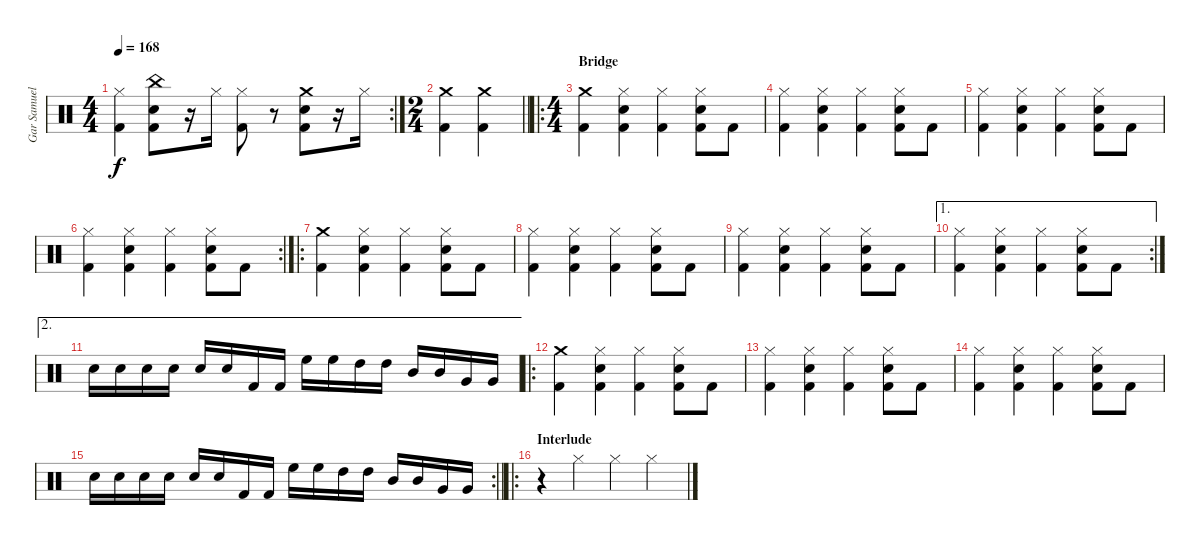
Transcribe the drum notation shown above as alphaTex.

\track ("Gar Samuelson" "Gar Samuel") {instrument percussion}
\staff {score}
\articulation defaults
\rc 2
\ts (4 4)
\tempo 168
\clef neutral
\ks c
("Hi-Hat (closed)" "Kick (hit) 2").4{dy f} ("China (hit)" "Snare (hit) 2" "Kick (hit) 2").8 r.16 "Hi-Hat (closed)".16 ("Hi-Hat (closed)" "Kick (hit) 2").8 r.8 ("Crash medium (hit)" "Snare (hit) 2" "Kick (hit) 2").8 r.16 "Hi-Hat (closed)".16 |
\ts (2 4)
\barLineRight lightlight
("Crash medium (hit)" "Kick (hit) 2").4 ("Crash medium (hit)" "Kick (hit) 2").4 |
\ro
\ts (4 4)
\section ("" "Bridge")
("Crash medium (hit)" "Kick (hit) 2").4 ("Hi-Hat (closed)" "Snare (hit) 2" "Kick (hit) 2").4 ("Hi-Hat (closed)" "Kick (hit) 2").4 ("Hi-Hat (closed)" "Snare (hit) 2" "Kick (hit) 2").8 "Kick (hit) 2".8 |
("Hi-Hat (closed)" "Kick (hit) 2").4 ("Hi-Hat (closed)" "Snare (hit) 2" "Kick (hit) 2").4 ("Hi-Hat (closed)" "Kick (hit) 2").4 ("Hi-Hat (closed)" "Snare (hit) 2" "Kick (hit) 2").8 "Kick (hit) 2".8 |
("Hi-Hat (closed)" "Kick (hit) 2").4 ("Hi-Hat (closed)" "Snare (hit) 2" "Kick (hit) 2").4 ("Hi-Hat (closed)" "Kick (hit) 2").4 ("Hi-Hat (closed)" "Snare (hit) 2" "Kick (hit) 2").8 "Kick (hit) 2".8 |
\rc 2
("Hi-Hat (closed)" "Kick (hit) 2").4 ("Hi-Hat (closed)" "Snare (hit) 2" "Kick (hit) 2").4 ("Hi-Hat (closed)" "Kick (hit) 2").4 ("Hi-Hat (closed)" "Snare (hit) 2" "Kick (hit) 2").8 "Kick (hit) 2".8 |
\ro
("Crash medium (hit)" "Kick (hit) 2").4 ("Hi-Hat (closed)" "Snare (hit) 2" "Kick (hit) 2").4 ("Hi-Hat (closed)" "Kick (hit) 2").4 ("Hi-Hat (closed)" "Snare (hit) 2" "Kick (hit) 2").8 "Kick (hit) 2".8 |
("Hi-Hat (closed)" "Kick (hit) 2").4 ("Hi-Hat (closed)" "Snare (hit) 2" "Kick (hit) 2").4 ("Hi-Hat (closed)" "Kick (hit) 2").4 ("Hi-Hat (closed)" "Snare (hit) 2" "Kick (hit) 2").8 "Kick (hit) 2".8 |
("Hi-Hat (closed)" "Kick (hit) 2").4 ("Hi-Hat (closed)" "Snare (hit) 2" "Kick (hit) 2").4 ("Hi-Hat (closed)" "Kick (hit) 2").4 ("Hi-Hat (closed)" "Snare (hit) 2" "Kick (hit) 2").8 "Kick (hit) 2".8 |
\ae 1
\rc 2
("Hi-Hat (closed)" "Kick (hit) 2").4 ("Hi-Hat (closed)" "Snare (hit) 2" "Kick (hit) 2").4 ("Hi-Hat (closed)" "Kick (hit) 2").4 ("Hi-Hat (closed)" "Snare (hit) 2" "Kick (hit) 2").8 "Kick (hit) 2".8 |
\ae 2 "Snare (hit) 2".16 "Snare (hit) 2".16 "Snare (hit) 2".16 "Snare (hit) 2".16 "Snare (hit) 2".16 "Snare (hit) 2".16 "Kick (hit) 2".16 "Kick (hit) 2".16 "High Floor Tom (hit)".16 "High Floor Tom (hit)".16 "High Tom (hit)".16 "High Tom (hit)".16 "Mid Tom (hit)".16 "Mid Tom (hit)".16 "Very Low Tom (hit)".16 "Very Low Tom (hit)".16
|
\ro
("Crash medium (hit)" "Kick (hit) 2").4 ("Hi-Hat (closed)" "Snare (hit) 2" "Kick (hit) 2").4 ("Hi-Hat (closed)" "Kick (hit) 2").4 ("Hi-Hat (closed)" "Snare (hit) 2" "Kick (hit) 2").8 "Kick (hit) 2".8 |
("Hi-Hat (closed)" "Kick (hit) 2").4 ("Hi-Hat (closed)" "Snare (hit) 2" "Kick (hit) 2").4 ("Hi-Hat (closed)" "Kick (hit) 2").4 ("Hi-Hat (closed)" "Snare (hit) 2" "Kick (hit) 2").8 "Kick (hit) 2".8 |
("Hi-Hat (closed)" "Kick (hit) 2").4 ("Hi-Hat (closed)" "Snare (hit) 2" "Kick (hit) 2").4 ("Hi-Hat (closed)" "Kick (hit) 2").4 ("Hi-Hat (closed)" "Snare (hit) 2" "Kick (hit) 2").8 "Kick (hit) 2".8 |
\rc 2
\barLineRight lightlight "Snare (hit) 2".16 "Snare (hit) 2".16 "Snare (hit) 2".16 "Snare (hit) 2".16 "Snare (hit) 2".16 "Snare (hit) 2".16 "Kick (hit) 2".16 "Kick (hit) 2".16 "High Floor Tom (hit)".16 "High Floor Tom (hit)".16 "High Tom (hit)".16 "High Tom (hit)".16 "Mid Tom (hit)".16 "Mid Tom (hit)".16 "Very Low Tom (hit)".16 "Very Low Tom (hit)".16
|
\ro
\section ("" "Interlude")
r.4 "Hi-Hat (closed)".4 "Hi-Hat (closed)".4 "Hi-Hat (closed)".4
